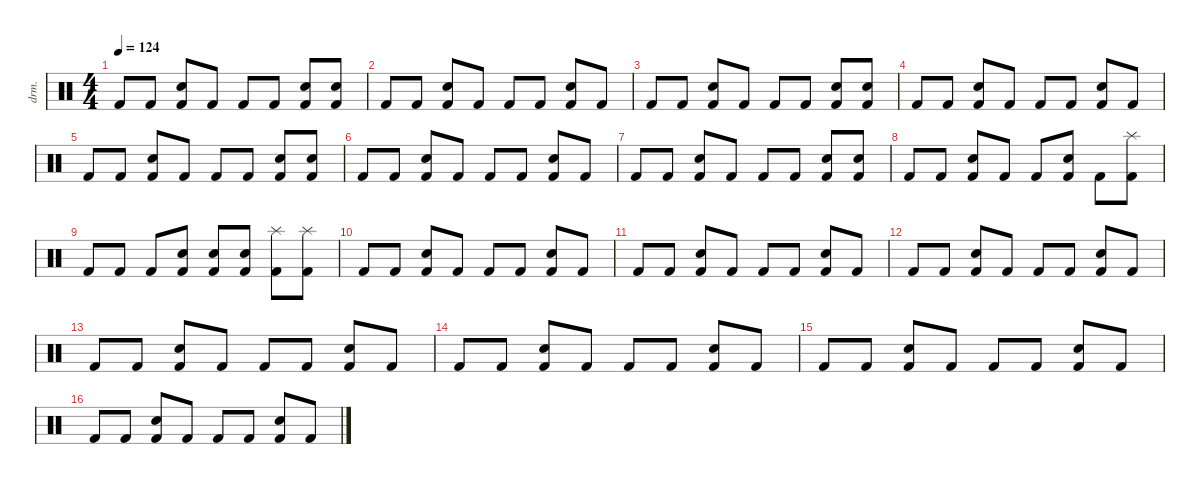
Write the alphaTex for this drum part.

\defaultSystemsLayout 4
\hideDynamics
\bracketExtendMode nobrackets
\otherSystemsTrackNameOrientation horizontal
\track ("Drums" "drm.") {instrument percussion}
\staff {score}
\articulation defaults
\ts (4 4)
\tempo 124
\clef neutral
\ks c "Kick (hit) 2".8{dy f beam Up} "Kick (hit) 2".8{beam Up}
("Kick (hit) 2" "Snare (hit) 2").8{beam Up} "Kick (hit) 2".8{beam Up} "Kick (hit) 2".8{beam Up} "Kick (hit) 2".8{beam Up} ("Kick (hit) 2" "Snare (hit) 2").8{beam Up} ("Kick (hit) 2" "Snare (hit) 2").8{beam Up} |
"Kick (hit) 2".8{beam Up} "Kick (hit) 2".8{beam Up} ("Kick (hit) 2" "Snare (hit) 2").8{beam Up} "Kick (hit) 2".8{beam Up} "Kick (hit) 2".8{beam Up} "Kick (hit) 2".8{beam Up} ("Kick (hit) 2" "Snare (hit) 2").8{beam Up} "Kick (hit) 2".8{beam Up} |
"Kick (hit) 2".8{beam Up} "Kick (hit) 2".8{beam Up} ("Kick (hit) 2" "Snare (hit) 2").8{beam Up} "Kick (hit) 2".8{beam Up} "Kick (hit) 2".8{beam Up} "Kick (hit) 2".8{beam Up} ("Kick (hit) 2" "Snare (hit) 2").8{beam Up} ("Kick (hit) 2" "Snare (hit) 2").8{beam Up} |
"Kick (hit) 2".8{beam Up} "Kick (hit) 2".8{beam Up} ("Kick (hit) 2" "Snare (hit) 2").8{beam Up} "Kick (hit) 2".8{beam Up} "Kick (hit) 2".8{beam Up} "Kick (hit) 2".8{beam Up} ("Kick (hit) 2" "Snare (hit) 2").8{beam Up} "Kick (hit) 2".8{beam Up} |
"Kick (hit) 2".8{beam Up} "Kick (hit) 2".8{beam Up} ("Kick (hit) 2" "Snare (hit) 2").8{beam Up} "Kick (hit) 2".8{beam Up} "Kick (hit) 2".8{beam Up} "Kick (hit) 2".8{beam Up} ("Kick (hit) 2" "Snare (hit) 2").8{beam Up} ("Kick (hit) 2" "Snare (hit) 2").8{beam Up} |
"Kick (hit) 2".8{beam Up} "Kick (hit) 2".8{beam Up} ("Kick (hit) 2" "Snare (hit) 2").8{beam Up} "Kick (hit) 2".8{beam Up} "Kick (hit) 2".8{beam Up} "Kick (hit) 2".8{beam Up} ("Kick (hit) 2" "Snare (hit) 2").8{beam Up} "Kick (hit) 2".8{beam Up} |
"Kick (hit) 2".8{beam Up} "Kick (hit) 2".8{beam Up} ("Kick (hit) 2" "Snare (hit) 2").8{beam Up} "Kick (hit) 2".8{beam Up} "Kick (hit) 2".8{beam Up} "Kick (hit) 2".8{beam Up} ("Kick (hit) 2" "Snare (hit) 2").8{beam Up} ("Kick (hit) 2" "Snare (hit) 2").8{beam Up} |
"Kick (hit) 2".8{beam Up} "Kick (hit) 2".8{beam Up} ("Kick (hit) 2" "Snare (hit) 2").8{beam Up} "Kick (hit) 2".8{beam Up} "Kick (hit) 2".8{beam Up} ("Kick (hit) 2" "Snare (hit) 2").8{beam Up} "Kick (hit) 2".8{beam Down} ("Kick (hit) 2" "Splash (hit)").8{beam Down} |
"Kick (hit) 2".8{beam Up} "Kick (hit) 2".8{beam Up} "Kick (hit) 2".8{beam Up} ("Kick (hit) 2" "Snare (hit) 2").8{beam Up} ("Kick (hit) 2" "Snare (hit) 2").8{beam Up} ("Kick (hit) 2" "Snare (hit) 2").8{beam Up} ("Kick (hit) 2" "Splash (hit)").8{beam Down} ("Kick (hit) 2" "Splash (hit)").8{beam Down} |
"Kick (hit) 2".8{beam Up} "Kick (hit) 2".8{beam Up} ("Kick (hit) 2" "Snare (hit) 2").8{beam Up} "Kick (hit) 2".8{beam Up} "Kick (hit) 2".8{beam Up} "Kick (hit) 2".8{beam Up} ("Kick (hit) 2" "Snare (hit) 2").8{beam Up} "Kick (hit) 2".8{beam Up} |
"Kick (hit) 2".8{beam Up} "Kick (hit) 2".8{beam Up} ("Kick (hit) 2" "Snare (hit) 2").8{beam Up} "Kick (hit) 2".8{beam Up} "Kick (hit) 2".8{beam Up} "Kick (hit) 2".8{beam Up} ("Kick (hit) 2" "Snare (hit) 2").8{beam Up} "Kick (hit) 2".8{beam Up} |
"Kick (hit) 2".8{beam Up} "Kick (hit) 2".8{beam Up} ("Kick (hit) 2" "Snare (hit) 2").8{beam Up} "Kick (hit) 2".8{beam Up} "Kick (hit) 2".8{beam Up} "Kick (hit) 2".8{beam Up} ("Kick (hit) 2" "Snare (hit) 2").8{beam Up} "Kick (hit) 2".8{beam Up} |
"Kick (hit) 2".8{beam Up} "Kick (hit) 2".8{beam Up} ("Kick (hit) 2" "Snare (hit) 2").8{beam Up} "Kick (hit) 2".8{beam Up} "Kick (hit) 2".8{beam Up} "Kick (hit) 2".8{beam Up} ("Kick (hit) 2" "Snare (hit) 2").8{beam Up} "Kick (hit) 2".8{beam Up} |
"Kick (hit) 2".8{beam Up} "Kick (hit) 2".8{beam Up} ("Kick (hit) 2" "Snare (hit) 2").8{beam Up} "Kick (hit) 2".8{beam Up} "Kick (hit) 2".8{beam Up} "Kick (hit) 2".8{beam Up} ("Kick (hit) 2" "Snare (hit) 2").8{beam Up} "Kick (hit) 2".8{beam Up} |
"Kick (hit) 2".8{beam Up} "Kick (hit) 2".8{beam Up} ("Kick (hit) 2" "Snare (hit) 2").8{beam Up} "Kick (hit) 2".8{beam Up} "Kick (hit) 2".8{beam Up} "Kick (hit) 2".8{beam Up} ("Kick (hit) 2" "Snare (hit) 2").8{beam Up} "Kick (hit) 2".8{beam Up} |
"Kick (hit) 2".8{beam Up} "Kick (hit) 2".8{beam Up} ("Kick (hit) 2" "Snare (hit) 2").8{beam Up} "Kick (hit) 2".8{beam Up} "Kick (hit) 2".8{beam Up} "Kick (hit) 2".8{beam Up} ("Kick (hit) 2" "Snare (hit) 2").8{beam Up} "Kick (hit) 2".8{beam Up}
